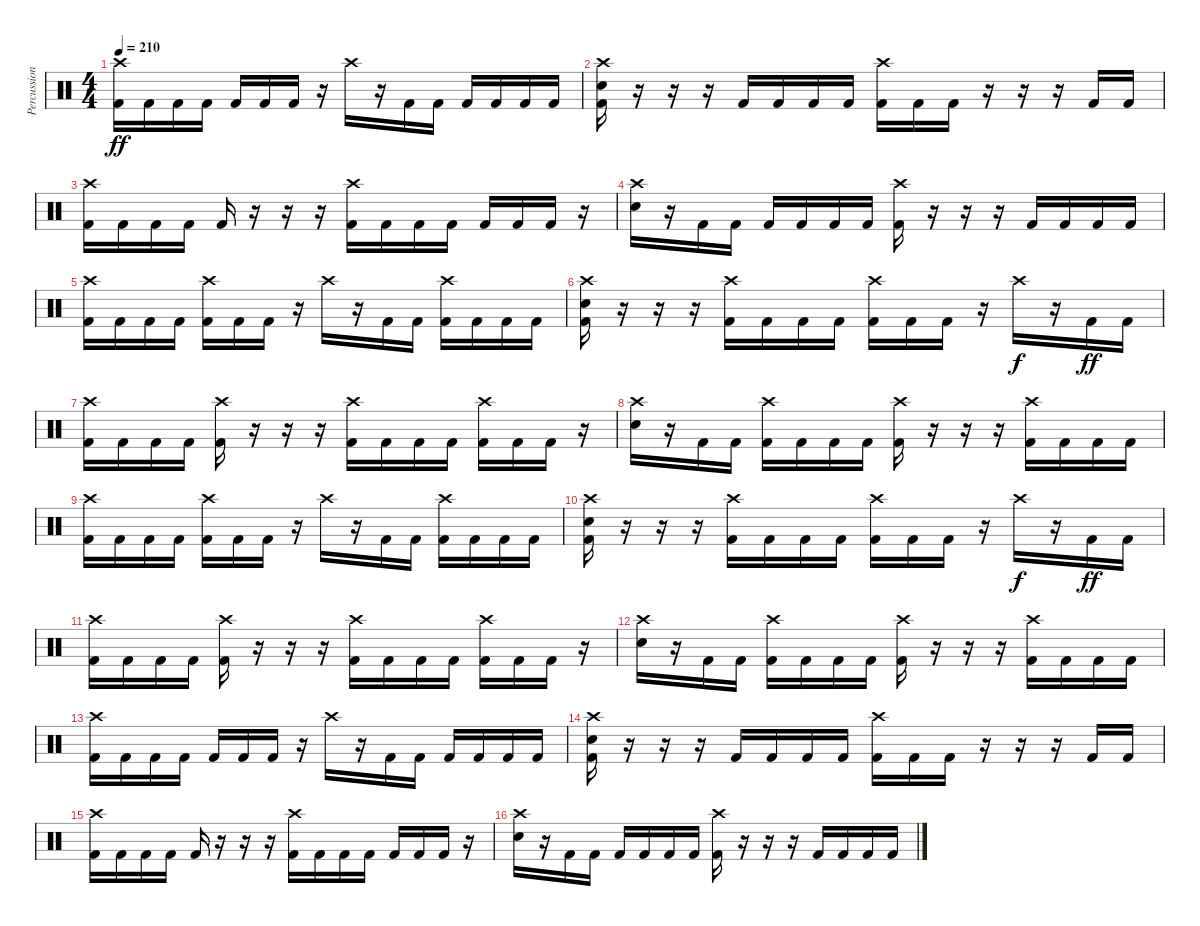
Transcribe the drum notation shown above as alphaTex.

\track ("Percussion" "Percussion") {instrument percussion}
\staff {score}
\articulation defaults
\ts (4 4)
\tempo 210
\clef neutral
\ks c
("Crash high (hit)" "Kick (hit) 2").16{dy ff} "Kick (hit) 2".16 "Kick (hit) 2".16 "Kick (hit) 2".16 "Kick (hit) 2".16 "Kick (hit) 2".16 "Kick (hit) 2".16 r.16 "Crash high (hit)".16 r.16 "Kick (hit) 2".16 "Kick (hit) 2".16 "Kick (hit) 2".16 "Kick (hit) 2".16 "Kick (hit) 2".16 "Kick (hit) 2".16 |
("Crash high (hit)" "Electric Snare (hit)" "Kick (hit) 2").16 r.16 r.16 r.16 "Kick (hit) 2".16 "Kick (hit) 2".16 "Kick (hit) 2".16 "Kick (hit) 2".16 ("Crash high (hit)" "Kick (hit) 2").16 "Kick (hit) 2".16 "Kick (hit) 2".16 r.16 r.16 r.16 "Kick (hit) 2".16 "Kick (hit) 2".16 |
("Crash high (hit)" "Kick (hit) 2").16 "Kick (hit) 2".16 "Kick (hit) 2".16 "Kick (hit) 2".16 "Kick (hit) 2".16 r.16 r.16 r.16 ("Crash high (hit)" "Kick (hit) 2").16 "Kick (hit) 2".16 "Kick (hit) 2".16 "Kick (hit) 2".16 "Kick (hit) 2".16 "Kick (hit) 2".16 "Kick (hit) 2".16 r.16 |
("Crash high (hit)" "Electric Snare (hit)").16 r.16 "Kick (hit) 2".16 "Kick (hit) 2".16 "Kick (hit) 2".16 "Kick (hit) 2".16 "Kick (hit) 2".16 "Kick (hit) 2".16 ("Crash high (hit)" "Kick (hit) 2").16 r.16 r.16 r.16 "Kick (hit) 2".16 "Kick (hit) 2".16 "Kick (hit) 2".16 "Kick (hit) 2".16 |
("Crash high (hit)" "Kick (hit) 2").16 "Kick (hit) 2".16 "Kick (hit) 2".16 "Kick (hit) 2".16 ("Crash high (hit)" "Kick (hit) 2").16 "Kick (hit) 2".16 "Kick (hit) 2".16 r.16 "Crash high (hit)".16 r.16 "Kick (hit) 2".16 "Kick (hit) 2".16 ("Crash high (hit)" "Kick (hit) 2").16 "Kick (hit) 2".16 "Kick (hit) 2".16 "Kick (hit) 2".16 |
("Crash high (hit)" "Electric Snare (hit)" "Kick (hit) 2").16 r.16 r.16 r.16 ("Crash high (hit)" "Kick (hit) 2").16 "Kick (hit) 2".16 "Kick (hit) 2".16 "Kick (hit) 2".16 ("Crash high (hit)" "Kick (hit) 2").16 "Kick (hit) 2".16 "Kick (hit) 2".16 r.16 "Crash high (hit)".16{dy f} r.16 "Kick (hit) 2".16{dy ff} "Kick (hit) 2".16 |
("Crash high (hit)" "Kick (hit) 2").16 "Kick (hit) 2".16 "Kick (hit) 2".16 "Kick (hit) 2".16 ("Crash high (hit)" "Kick (hit) 2").16 r.16 r.16 r.16 ("Crash high (hit)" "Kick (hit) 2").16 "Kick (hit) 2".16 "Kick (hit) 2".16 "Kick (hit) 2".16 ("Crash high (hit)" "Kick (hit) 2").16 "Kick (hit) 2".16 "Kick (hit) 2".16 r.16 |
("Crash high (hit)" "Electric Snare (hit)").16 r.16 "Kick (hit) 2".16 "Kick (hit) 2".16 ("Crash high (hit)" "Kick (hit) 2").16 "Kick (hit) 2".16 "Kick (hit) 2".16 "Kick (hit) 2".16 ("Crash high (hit)" "Kick (hit) 2").16 r.16 r.16 r.16 ("Crash high (hit)" "Kick (hit) 2").16 "Kick (hit) 2".16 "Kick (hit) 2".16 "Kick (hit) 2".16 |
("Crash high (hit)" "Kick (hit) 2").16 "Kick (hit) 2".16 "Kick (hit) 2".16 "Kick (hit) 2".16 ("Crash high (hit)" "Kick (hit) 2").16 "Kick (hit) 2".16 "Kick (hit) 2".16 r.16 "Crash high (hit)".16 r.16 "Kick (hit) 2".16 "Kick (hit) 2".16 ("Crash high (hit)" "Kick (hit) 2").16 "Kick (hit) 2".16 "Kick (hit) 2".16 "Kick (hit) 2".16 |
("Crash high (hit)" "Electric Snare (hit)" "Kick (hit) 2").16 r.16 r.16 r.16 ("Crash high (hit)" "Kick (hit) 2").16 "Kick (hit) 2".16 "Kick (hit) 2".16 "Kick (hit) 2".16 ("Crash high (hit)" "Kick (hit) 2").16 "Kick (hit) 2".16 "Kick (hit) 2".16 r.16 "Crash high (hit)".16{dy f} r.16 "Kick (hit) 2".16{dy ff} "Kick (hit) 2".16 |
("Crash high (hit)" "Kick (hit) 2").16 "Kick (hit) 2".16 "Kick (hit) 2".16 "Kick (hit) 2".16 ("Crash high (hit)" "Kick (hit) 2").16 r.16 r.16 r.16 ("Crash high (hit)" "Kick (hit) 2").16 "Kick (hit) 2".16 "Kick (hit) 2".16 "Kick (hit) 2".16 ("Crash high (hit)" "Kick (hit) 2").16 "Kick (hit) 2".16 "Kick (hit) 2".16 r.16 |
("Crash high (hit)" "Electric Snare (hit)").16 r.16 "Kick (hit) 2".16 "Kick (hit) 2".16 ("Crash high (hit)" "Kick (hit) 2").16 "Kick (hit) 2".16 "Kick (hit) 2".16 "Kick (hit) 2".16 ("Crash high (hit)" "Kick (hit) 2").16 r.16 r.16 r.16 ("Crash high (hit)" "Kick (hit) 2").16 "Kick (hit) 2".16 "Kick (hit) 2".16 "Kick (hit) 2".16 |
("Crash high (hit)" "Kick (hit) 2").16 "Kick (hit) 2".16 "Kick (hit) 2".16 "Kick (hit) 2".16 "Kick (hit) 2".16 "Kick (hit) 2".16 "Kick (hit) 2".16 r.16 "Crash high (hit)".16 r.16 "Kick (hit) 2".16 "Kick (hit) 2".16 "Kick (hit) 2".16 "Kick (hit) 2".16 "Kick (hit) 2".16 "Kick (hit) 2".16 |
("Crash high (hit)" "Electric Snare (hit)" "Kick (hit) 2").16 r.16 r.16 r.16 "Kick (hit) 2".16 "Kick (hit) 2".16 "Kick (hit) 2".16 "Kick (hit) 2".16 ("Crash high (hit)" "Kick (hit) 2").16 "Kick (hit) 2".16 "Kick (hit) 2".16 r.16 r.16 r.16 "Kick (hit) 2".16 "Kick (hit) 2".16 |
("Crash high (hit)" "Kick (hit) 2").16 "Kick (hit) 2".16 "Kick (hit) 2".16 "Kick (hit) 2".16 "Kick (hit) 2".16 r.16 r.16 r.16 ("Crash high (hit)" "Kick (hit) 2").16 "Kick (hit) 2".16 "Kick (hit) 2".16 "Kick (hit) 2".16 "Kick (hit) 2".16 "Kick (hit) 2".16 "Kick (hit) 2".16 r.16 |
("Crash high (hit)" "Electric Snare (hit)").16 r.16 "Kick (hit) 2".16 "Kick (hit) 2".16 "Kick (hit) 2".16 "Kick (hit) 2".16 "Kick (hit) 2".16 "Kick (hit) 2".16 ("Crash high (hit)" "Kick (hit) 2").16 r.16 r.16 r.16 "Kick (hit) 2".16 "Kick (hit) 2".16 "Kick (hit) 2".16 "Kick (hit) 2".16
